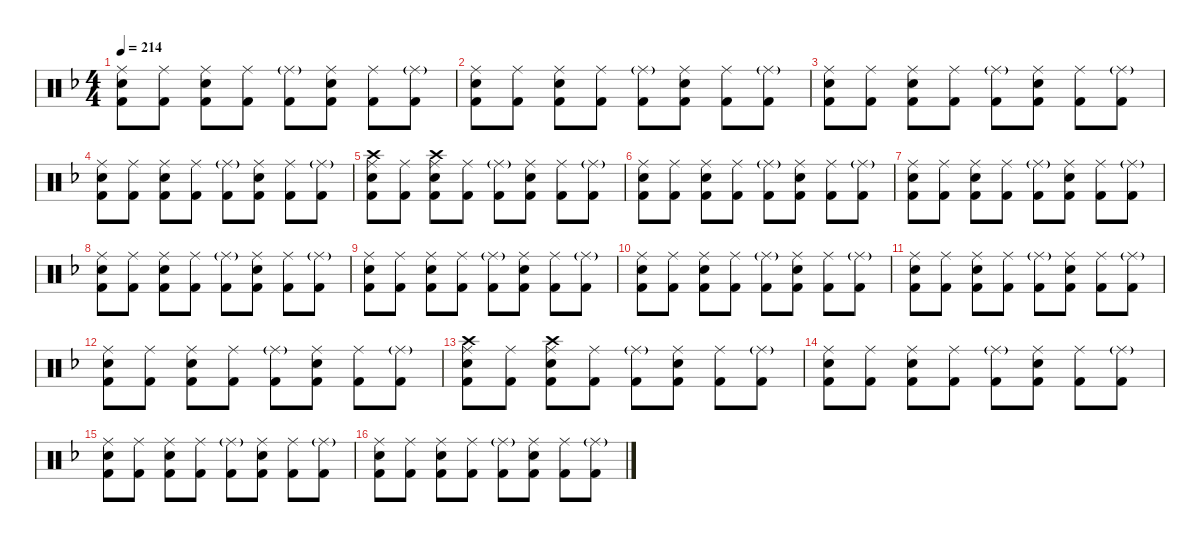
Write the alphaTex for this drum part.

\hideDynamics
\bracketExtendMode nobrackets
\singleTrackTrackNamePolicy hidden
\multiTrackTrackNamePolicy hidden
\firstSystemTrackNameMode fullname
\firstSystemTrackNameOrientation horizontal
\otherSystemsTrackNameOrientation horizontal
\track ("Drumkit" "Drums") {defaultSystemsLayout 4 instrument percussion}
\staff {score}
\articulation defaults
\ts (4 4)
\tempo 214
\clef neutral
\ks dminor
("Ride (middle)"{acc forcenatural} "Snare (hit) 2"{acc forcenatural} "Kick (hit) 2"{acc forcenatural}).8{dy mf beam Down} ("Ride (middle)"{acc forcenatural} "Kick (hit) 2"{acc forcenatural}).8{beam Down} ("Ride (middle)"{acc forcenatural} "Snare (hit) 2"{acc forcenatural} "Kick (hit) 2"{acc forcenatural}).8{beam Down} ("Ride (middle)"{acc forcenatural} "Kick (hit) 2"{acc forcenatural}).8{beam Down} ("Ride (middle)"{g acc forcenatural} "Kick (hit) 2"{acc forcenatural}).8{dy f beam Down} ("Ride (middle)"{acc forcenatural} "Snare (hit) 2"{acc forcenatural} "Kick (hit) 2"{acc forcenatural}).8{dy mf beam Down} ("Ride (middle)"{acc forcenatural} "Kick (hit) 2"{acc forcenatural}).8{beam Down} ("Ride (middle)"{g acc forcenatural} "Kick (hit) 2"{acc forcenatural}).8{dy f beam Down} |
("Ride (middle)"{acc forcenatural} "Snare (hit) 2"{acc forcenatural} "Kick (hit) 2"{acc forcenatural}).8{dy mf beam Down} ("Ride (middle)"{acc forcenatural} "Kick (hit) 2"{acc forcenatural}).8{beam Down} ("Ride (middle)"{acc forcenatural} "Snare (hit) 2"{acc forcenatural} "Kick (hit) 2"{acc forcenatural}).8{beam Down} ("Ride (middle)"{acc forcenatural} "Kick (hit) 2"{acc forcenatural}).8{beam Down} ("Ride (middle)"{g acc forcenatural} "Kick (hit) 2"{acc forcenatural}).8{dy f beam Down} ("Ride (middle)"{acc forcenatural} "Snare (hit) 2"{acc forcenatural} "Kick (hit) 2"{acc forcenatural}).8{dy mf beam Down} ("Ride (middle)"{acc forcenatural} "Kick (hit) 2"{acc forcenatural}).8{beam Down} ("Ride (middle)"{g acc forcenatural} "Kick (hit) 2"{acc forcenatural}).8{dy f beam Down} |
("Ride (middle)"{acc forcenatural} "Snare (hit) 2"{acc forcenatural} "Kick (hit) 2"{acc forcenatural}).8{dy mf beam Down} ("Ride (middle)"{acc forcenatural} "Kick (hit) 2"{acc forcenatural}).8{beam Down} ("Ride (middle)"{acc forcenatural} "Snare (hit) 2"{acc forcenatural} "Kick (hit) 2"{acc forcenatural}).8{beam Down} ("Ride (middle)"{acc forcenatural} "Kick (hit) 2"{acc forcenatural}).8{beam Down} ("Ride (middle)"{g acc forcenatural} "Kick (hit) 2"{acc forcenatural}).8{dy f beam Down} ("Ride (middle)"{acc forcenatural} "Snare (hit) 2"{acc forcenatural} "Kick (hit) 2"{acc forcenatural}).8{dy mf beam Down} ("Ride (middle)"{acc forcenatural} "Kick (hit) 2"{acc forcenatural}).8{beam Down} ("Ride (middle)"{g acc forcenatural} "Kick (hit) 2"{acc forcenatural}).8{dy f beam Down} |
("Ride (middle)"{acc forcenatural} "Snare (hit) 2"{acc forcenatural} "Kick (hit) 2"{acc forcenatural}).8{dy mf beam Down} ("Ride (middle)"{acc forcenatural} "Kick (hit) 2"{acc forcenatural}).8{beam Down} ("Ride (middle)"{acc forcenatural} "Snare (hit) 2"{acc forcenatural} "Kick (hit) 2"{acc forcenatural}).8{beam Down} ("Ride (middle)"{acc forcenatural} "Kick (hit) 2"{acc forcenatural}).8{beam Down} ("Ride (middle)"{g acc forcenatural} "Kick (hit) 2"{acc forcenatural}).8{dy f beam Down} ("Ride (middle)"{acc forcenatural} "Snare (hit) 2"{acc forcenatural} "Kick (hit) 2"{acc forcenatural}).8{dy mf beam Down} ("Ride (middle)"{acc forcenatural} "Kick (hit) 2"{acc forcenatural}).8{beam Down} ("Ride (middle)"{g acc forcenatural} "Kick (hit) 2"{acc forcenatural}).8{dy f beam Down} |
("Crash high (hit)"{acc forcenatural} "Ride (middle)"{acc forcenatural} "Snare (hit) 2"{acc forcenatural} "Kick (hit) 2"{acc forcenatural}).8{beam Down} ("Ride (middle)"{acc forcenatural} "Kick (hit) 2"{acc forcenatural}).8{dy mf beam Down} ("Crash high (hit)"{acc forcenatural} "Ride (middle)"{acc forcenatural} "Snare (hit) 2"{acc forcenatural} "Kick (hit) 2"{acc forcenatural}).8{dy f beam Down} ("Ride (middle)"{acc forcenatural} "Kick (hit) 2"{acc forcenatural}).8{dy mf beam Down} ("Ride (middle)"{g acc forcenatural} "Kick (hit) 2"{acc forcenatural}).8{dy f beam Down} ("Ride (middle)"{acc forcenatural} "Snare (hit) 2"{acc forcenatural} "Kick (hit) 2"{acc forcenatural}).8{dy mf beam Down} ("Ride (middle)"{acc forcenatural} "Kick (hit) 2"{acc forcenatural}).8{beam Down} ("Ride (middle)"{g acc forcenatural} "Kick (hit) 2"{acc forcenatural}).8{dy f beam Down} |
("Ride (middle)"{acc forcenatural} "Snare (hit) 2"{acc forcenatural} "Kick (hit) 2"{acc forcenatural}).8{dy mf beam Down} ("Ride (middle)"{acc forcenatural} "Kick (hit) 2"{acc forcenatural}).8{beam Down} ("Ride (middle)"{acc forcenatural} "Snare (hit) 2"{acc forcenatural} "Kick (hit) 2"{acc forcenatural}).8{beam Down} ("Ride (middle)"{acc forcenatural} "Kick (hit) 2"{acc forcenatural}).8{beam Down} ("Ride (middle)"{g acc forcenatural} "Kick (hit) 2"{acc forcenatural}).8{dy f beam Down} ("Ride (middle)"{acc forcenatural} "Snare (hit) 2"{acc forcenatural} "Kick (hit) 2"{acc forcenatural}).8{dy mf beam Down} ("Ride (middle)"{acc forcenatural} "Kick (hit) 2"{acc forcenatural}).8{beam Down} ("Ride (middle)"{g acc forcenatural} "Kick (hit) 2"{acc forcenatural}).8{dy f beam Down} |
("Ride (middle)"{acc forcenatural} "Snare (hit) 2"{acc forcenatural} "Kick (hit) 2"{acc forcenatural}).8{dy mf beam Down} ("Ride (middle)"{acc forcenatural} "Kick (hit) 2"{acc forcenatural}).8{beam Down} ("Ride (middle)"{acc forcenatural} "Snare (hit) 2"{acc forcenatural} "Kick (hit) 2"{acc forcenatural}).8{beam Down} ("Ride (middle)"{acc forcenatural} "Kick (hit) 2"{acc forcenatural}).8{beam Down} ("Ride (middle)"{g acc forcenatural} "Kick (hit) 2"{acc forcenatural}).8{dy f beam Down} ("Ride (middle)"{acc forcenatural} "Snare (hit) 2"{acc forcenatural} "Kick (hit) 2"{acc forcenatural}).8{dy mf beam Down} ("Ride (middle)"{acc forcenatural} "Kick (hit) 2"{acc forcenatural}).8{beam Down} ("Ride (middle)"{g acc forcenatural} "Kick (hit) 2"{acc forcenatural}).8{dy f beam Down} |
("Ride (middle)"{acc forcenatural} "Snare (hit) 2"{acc forcenatural} "Kick (hit) 2"{acc forcenatural}).8{dy mf beam Down} ("Ride (middle)"{acc forcenatural} "Kick (hit) 2"{acc forcenatural}).8{beam Down} ("Ride (middle)"{acc forcenatural} "Snare (hit) 2"{acc forcenatural} "Kick (hit) 2"{acc forcenatural}).8{beam Down} ("Ride (middle)"{acc forcenatural} "Kick (hit) 2"{acc forcenatural}).8{beam Down} ("Ride (middle)"{g acc forcenatural} "Kick (hit) 2"{acc forcenatural}).8{dy f beam Down} ("Ride (middle)"{acc forcenatural} "Snare (hit) 2"{acc forcenatural} "Kick (hit) 2"{acc forcenatural}).8{dy mf beam Down} ("Ride (middle)"{acc forcenatural} "Kick (hit) 2"{acc forcenatural}).8{beam Down} ("Ride (middle)"{g acc forcenatural} "Kick (hit) 2"{acc forcenatural}).8{dy f beam Down} |
("Ride (middle)"{acc forcenatural} "Snare (hit) 2"{acc forcenatural} "Kick (hit) 2"{acc forcenatural}).8{dy mf beam Down} ("Ride (middle)"{acc forcenatural} "Kick (hit) 2"{acc forcenatural}).8{beam Down} ("Ride (middle)"{acc forcenatural} "Snare (hit) 2"{acc forcenatural} "Kick (hit) 2"{acc forcenatural}).8{beam Down} ("Ride (middle)"{acc forcenatural} "Kick (hit) 2"{acc forcenatural}).8{beam Down} ("Ride (middle)"{g acc forcenatural} "Kick (hit) 2"{acc forcenatural}).8{dy f beam Down} ("Ride (middle)"{acc forcenatural} "Snare (hit) 2"{acc forcenatural} "Kick (hit) 2"{acc forcenatural}).8{dy mf beam Down} ("Ride (middle)"{acc forcenatural} "Kick (hit) 2"{acc forcenatural}).8{beam Down} ("Ride (middle)"{g acc forcenatural} "Kick (hit) 2"{acc forcenatural}).8{dy f beam Down} |
("Ride (middle)"{acc forcenatural} "Snare (hit) 2"{acc forcenatural} "Kick (hit) 2"{acc forcenatural}).8{dy mf beam Down} ("Ride (middle)"{acc forcenatural} "Kick (hit) 2"{acc forcenatural}).8{beam Down} ("Ride (middle)"{acc forcenatural} "Snare (hit) 2"{acc forcenatural} "Kick (hit) 2"{acc forcenatural}).8{beam Down} ("Ride (middle)"{acc forcenatural} "Kick (hit) 2"{acc forcenatural}).8{beam Down} ("Ride (middle)"{g acc forcenatural} "Kick (hit) 2"{acc forcenatural}).8{dy f beam Down} ("Ride (middle)"{acc forcenatural} "Snare (hit) 2"{acc forcenatural} "Kick (hit) 2"{acc forcenatural}).8{dy mf beam Down} ("Ride (middle)"{acc forcenatural} "Kick (hit) 2"{acc forcenatural}).8{beam Down} ("Ride (middle)"{g acc forcenatural} "Kick (hit) 2"{acc forcenatural}).8{dy f beam Down} |
("Ride (middle)"{acc forcenatural} "Snare (hit) 2"{acc forcenatural} "Kick (hit) 2"{acc forcenatural}).8{dy mf beam Down} ("Ride (middle)"{acc forcenatural} "Kick (hit) 2"{acc forcenatural}).8{beam Down} ("Ride (middle)"{acc forcenatural} "Snare (hit) 2"{acc forcenatural} "Kick (hit) 2"{acc forcenatural}).8{beam Down} ("Ride (middle)"{acc forcenatural} "Kick (hit) 2"{acc forcenatural}).8{beam Down} ("Ride (middle)"{g acc forcenatural} "Kick (hit) 2"{acc forcenatural}).8{dy f beam Down} ("Ride (middle)"{acc forcenatural} "Snare (hit) 2"{acc forcenatural} "Kick (hit) 2"{acc forcenatural}).8{dy mf beam Down} ("Ride (middle)"{acc forcenatural} "Kick (hit) 2"{acc forcenatural}).8{beam Down} ("Ride (middle)"{g acc forcenatural} "Kick (hit) 2"{acc forcenatural}).8{dy f beam Down} |
("Ride (middle)"{acc forcenatural} "Snare (hit) 2"{acc forcenatural} "Kick (hit) 2"{acc forcenatural}).8{dy mf beam Down} ("Ride (middle)"{acc forcenatural} "Kick (hit) 2"{acc forcenatural}).8{beam Down} ("Ride (middle)"{acc forcenatural} "Snare (hit) 2"{acc forcenatural} "Kick (hit) 2"{acc forcenatural}).8{beam Down} ("Ride (middle)"{acc forcenatural} "Kick (hit) 2"{acc forcenatural}).8{beam Down} ("Ride (middle)"{g acc forcenatural} "Kick (hit) 2"{acc forcenatural}).8{dy f beam Down} ("Ride (middle)"{acc forcenatural} "Snare (hit) 2"{acc forcenatural} "Kick (hit) 2"{acc forcenatural}).8{dy mf beam Down} ("Ride (middle)"{acc forcenatural} "Kick (hit) 2"{acc forcenatural}).8{beam Down} ("Ride (middle)"{g acc forcenatural} "Kick (hit) 2"{acc forcenatural}).8{dy f beam Down} |
("Crash high (hit)"{acc forcenatural} "Ride (middle)"{acc forcenatural} "Snare (hit) 2"{acc forcenatural} "Kick (hit) 2"{acc forcenatural}).8{beam Down} ("Ride (middle)"{acc forcenatural} "Kick (hit) 2"{acc forcenatural}).8{dy mf beam Down} ("Crash high (hit)"{acc forcenatural} "Ride (middle)"{acc forcenatural} "Snare (hit) 2"{acc forcenatural} "Kick (hit) 2"{acc forcenatural}).8{dy f beam Down} ("Ride (middle)"{acc forcenatural} "Kick (hit) 2"{acc forcenatural}).8{dy mf beam Down} ("Ride (middle)"{g acc forcenatural} "Kick (hit) 2"{acc forcenatural}).8{dy f beam Down} ("Ride (middle)"{acc forcenatural} "Snare (hit) 2"{acc forcenatural} "Kick (hit) 2"{acc forcenatural}).8{dy mf beam Down} ("Ride (middle)"{acc forcenatural} "Kick (hit) 2"{acc forcenatural}).8{beam Down} ("Ride (middle)"{g acc forcenatural} "Kick (hit) 2"{acc forcenatural}).8{dy f beam Down} |
("Ride (middle)"{acc forcenatural} "Snare (hit) 2"{acc forcenatural} "Kick (hit) 2"{acc forcenatural}).8{dy mf beam Down} ("Ride (middle)"{acc forcenatural} "Kick (hit) 2"{acc forcenatural}).8{beam Down} ("Ride (middle)"{acc forcenatural} "Snare (hit) 2"{acc forcenatural} "Kick (hit) 2"{acc forcenatural}).8{beam Down} ("Ride (middle)"{acc forcenatural} "Kick (hit) 2"{acc forcenatural}).8{beam Down} ("Ride (middle)"{g acc forcenatural} "Kick (hit) 2"{acc forcenatural}).8{dy f beam Down} ("Ride (middle)"{acc forcenatural} "Snare (hit) 2"{acc forcenatural} "Kick (hit) 2"{acc forcenatural}).8{dy mf beam Down} ("Ride (middle)"{acc forcenatural} "Kick (hit) 2"{acc forcenatural}).8{beam Down} ("Ride (middle)"{g acc forcenatural} "Kick (hit) 2"{acc forcenatural}).8{dy f beam Down} |
("Ride (middle)"{acc forcenatural} "Snare (hit) 2"{acc forcenatural} "Kick (hit) 2"{acc forcenatural}).8{dy mf beam Down} ("Ride (middle)"{acc forcenatural} "Kick (hit) 2"{acc forcenatural}).8{beam Down} ("Ride (middle)"{acc forcenatural} "Snare (hit) 2"{acc forcenatural} "Kick (hit) 2"{acc forcenatural}).8{beam Down} ("Ride (middle)"{acc forcenatural} "Kick (hit) 2"{acc forcenatural}).8{beam Down} ("Ride (middle)"{g acc forcenatural} "Kick (hit) 2"{acc forcenatural}).8{dy f beam Down} ("Ride (middle)"{acc forcenatural} "Snare (hit) 2"{acc forcenatural} "Kick (hit) 2"{acc forcenatural}).8{dy mf beam Down} ("Ride (middle)"{acc forcenatural} "Kick (hit) 2"{acc forcenatural}).8{beam Down} ("Ride (middle)"{g acc forcenatural} "Kick (hit) 2"{acc forcenatural}).8{dy f beam Down} |
("Ride (middle)"{acc forcenatural} "Snare (hit) 2"{acc forcenatural} "Kick (hit) 2"{acc forcenatural}).8{dy mf beam Down} ("Ride (middle)"{acc forcenatural} "Kick (hit) 2"{acc forcenatural}).8{beam Down} ("Ride (middle)"{acc forcenatural} "Snare (hit) 2"{acc forcenatural} "Kick (hit) 2"{acc forcenatural}).8{beam Down} ("Ride (middle)"{acc forcenatural} "Kick (hit) 2"{acc forcenatural}).8{beam Down} ("Ride (middle)"{g acc forcenatural} "Kick (hit) 2"{acc forcenatural}).8{dy f beam Down} ("Ride (middle)"{acc forcenatural} "Snare (hit) 2"{acc forcenatural} "Kick (hit) 2"{acc forcenatural}).8{dy mf beam Down} ("Ride (middle)"{acc forcenatural} "Kick (hit) 2"{acc forcenatural}).8{beam Down} ("Ride (middle)"{g acc forcenatural} "Kick (hit) 2"{acc forcenatural}).8{dy f beam Down}
